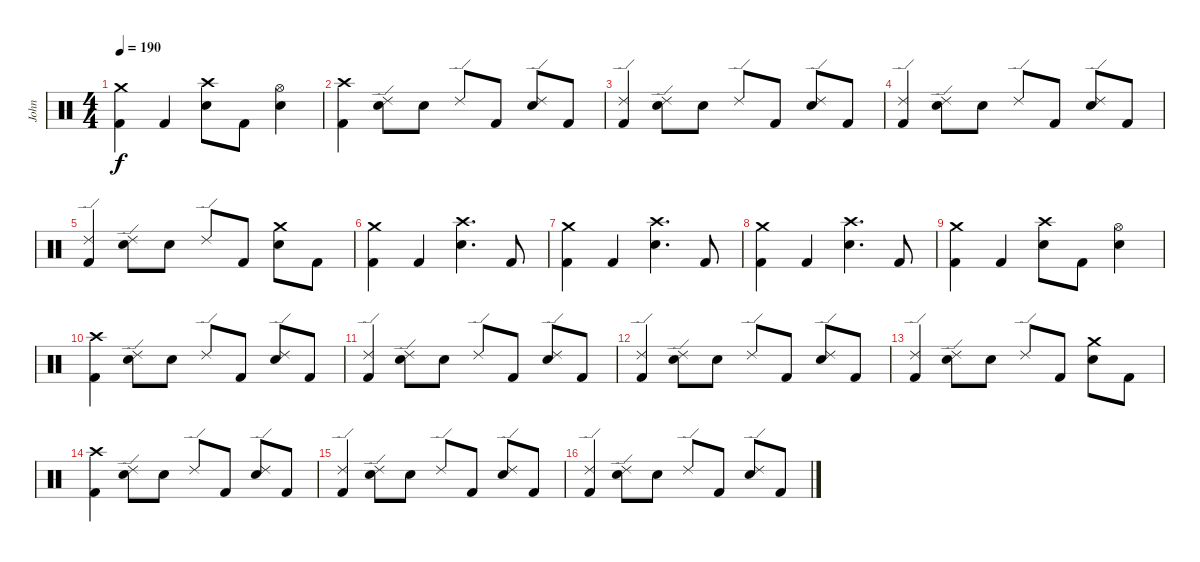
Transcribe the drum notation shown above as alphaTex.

\track ("John" "John") {instrument percussion}
\staff {score}
\articulation defaults
\ts (4 4)
\tempo 190
\clef neutral
\ks c
("Kick (hit) 2" "Crash medium (hit)").4{dy f} "Kick (hit) 2".4 ("Snare (hit) 2" "Crash high (hit)").8 "Kick (hit) 2".8 ("Snare (hit) 2" "Hi-Hat (open)").4 |
("Kick (hit) 2" "Crash high (hit)").4 ("Snare (hit) 2" "Ride (edge) 2").8 "Snare (hit) 2".8 "Ride (edge) 2".8 "Kick (hit) 2".8 ("Snare (hit) 2" "Ride (edge) 2").8 "Kick (hit) 2".8 |
("Kick (hit) 2" "Ride (edge) 2").4 ("Snare (hit) 2" "Ride (edge) 2").8 "Snare (hit) 2".8 "Ride (edge) 2".8 "Kick (hit) 2".8 ("Snare (hit) 2" "Ride (edge) 2").8 "Kick (hit) 2".8 |
("Kick (hit) 2" "Ride (edge) 2").4 ("Snare (hit) 2" "Ride (edge) 2").8 "Snare (hit) 2".8 "Ride (edge) 2".8 "Kick (hit) 2".8 ("Snare (hit) 2" "Ride (edge) 2").8 "Kick (hit) 2".8 |
("Kick (hit) 2" "Ride (edge) 2").4 ("Snare (hit) 2" "Ride (edge) 2").8 "Snare (hit) 2".8 "Ride (edge) 2".8 "Kick (hit) 2".8 ("Snare (hit) 2" "Crash medium (hit)").8 "Kick (hit) 2".8 |
("Kick (hit) 2" "Crash medium (hit)").4 "Kick (hit) 2".4 ("Snare (hit) 2" "Crash high (hit)").4{d} "Kick (hit) 2".8 |
("Kick (hit) 2" "Crash medium (hit)").4 "Kick (hit) 2".4 ("Snare (hit) 2" "Crash high (hit)").4{d} "Kick (hit) 2".8 |
("Kick (hit) 2" "Crash medium (hit)").4 "Kick (hit) 2".4 ("Snare (hit) 2" "Crash high (hit)").4{d} "Kick (hit) 2".8 |
("Kick (hit) 2" "Crash medium (hit)").4 "Kick (hit) 2".4 ("Snare (hit) 2" "Crash high (hit)").8 "Kick (hit) 2".8 ("Snare (hit) 2" "Hi-Hat (open)").4 |
("Kick (hit) 2" "Crash high (hit)").4 ("Snare (hit) 2" "Ride (edge) 2").8 "Snare (hit) 2".8 "Ride (edge) 2".8 "Kick (hit) 2".8 ("Snare (hit) 2" "Ride (edge) 2").8 "Kick (hit) 2".8 |
("Kick (hit) 2" "Ride (edge) 2").4 ("Snare (hit) 2" "Ride (edge) 2").8 "Snare (hit) 2".8 "Ride (edge) 2".8 "Kick (hit) 2".8 ("Snare (hit) 2" "Ride (edge) 2").8 "Kick (hit) 2".8 |
("Kick (hit) 2" "Ride (edge) 2").4 ("Snare (hit) 2" "Ride (edge) 2").8 "Snare (hit) 2".8 "Ride (edge) 2".8 "Kick (hit) 2".8 ("Snare (hit) 2" "Ride (edge) 2").8 "Kick (hit) 2".8 |
("Kick (hit) 2" "Ride (edge) 2").4 ("Snare (hit) 2" "Ride (edge) 2").8 "Snare (hit) 2".8 "Ride (edge) 2".8 "Kick (hit) 2".8 ("Snare (hit) 2" "Crash medium (hit)").8 "Kick (hit) 2".8 |
("Kick (hit) 2" "Crash high (hit)").4 ("Snare (hit) 2" "Ride (edge) 2").8 "Snare (hit) 2".8 "Ride (edge) 2".8 "Kick (hit) 2".8 ("Snare (hit) 2" "Ride (edge) 2").8 "Kick (hit) 2".8 |
("Kick (hit) 2" "Ride (edge) 2").4 ("Snare (hit) 2" "Ride (edge) 2").8 "Snare (hit) 2".8 "Ride (edge) 2".8 "Kick (hit) 2".8 ("Snare (hit) 2" "Ride (edge) 2").8 "Kick (hit) 2".8 |
("Kick (hit) 2" "Ride (edge) 2").4 ("Snare (hit) 2" "Ride (edge) 2").8 "Snare (hit) 2".8 "Ride (edge) 2".8 "Kick (hit) 2".8 ("Snare (hit) 2" "Ride (edge) 2").8 "Kick (hit) 2".8
